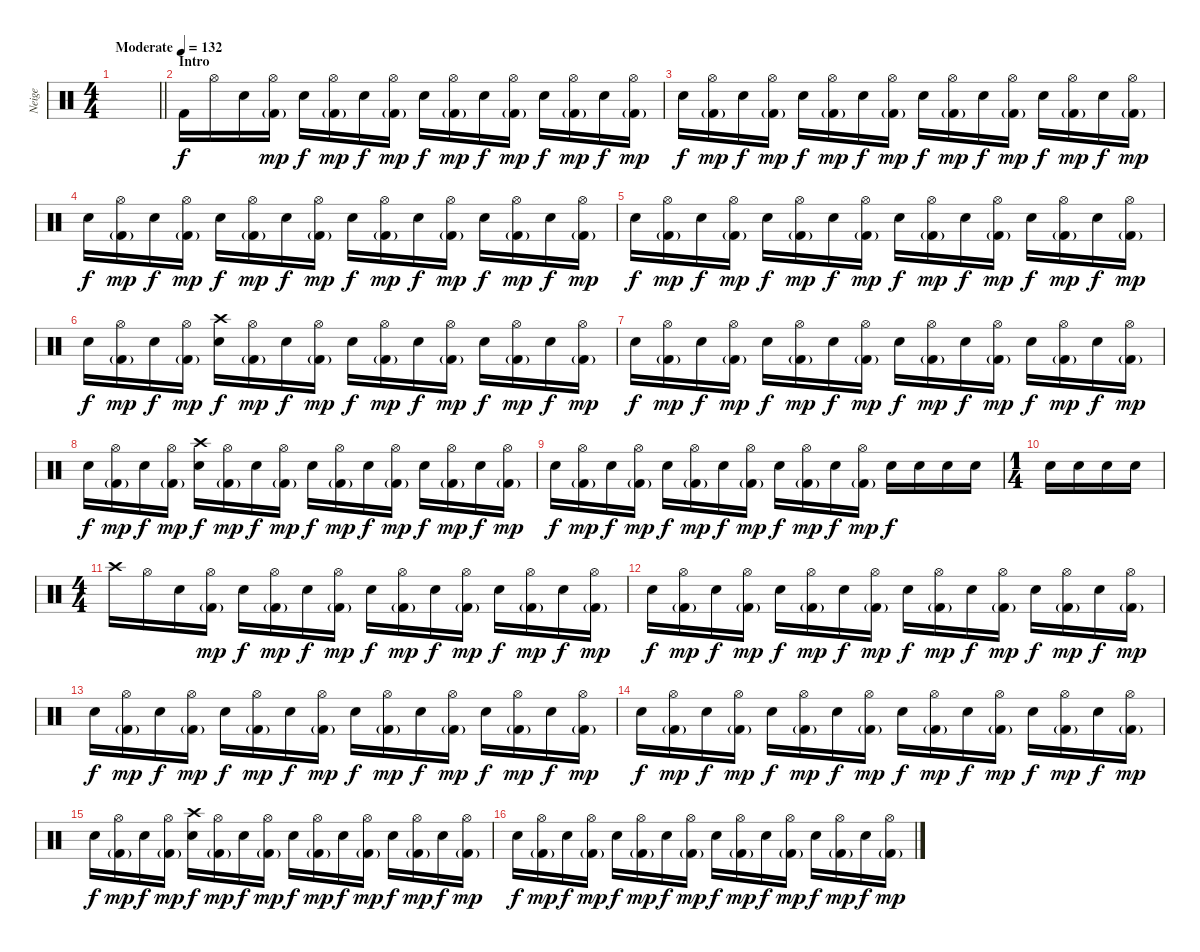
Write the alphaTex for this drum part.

\track ("Neige" "Neige") {instrument percussion}
\staff {score}
\articulation defaults
\ts (4 4)
\tempo (132 "Moderate")
\clef neutral
\barLineRight lightlight
\ks c
|
\section ("" "Intro")
"Kick (hit) 2".16 "Hi-Hat (open)".16 "Snare (hit) 2".16 ("Kick (hit) 2"{g} "Hi-Hat (open)").16{dy mp} "Snare (hit) 2".16{dy f} ("Kick (hit) 2"{g} "Hi-Hat (open)").16{dy mp} "Snare (hit) 2".16{dy f} ("Kick (hit) 2"{g} "Hi-Hat (open)").16{dy mp} "Snare (hit) 2".16{dy f} ("Kick (hit) 2"{g} "Hi-Hat (open)").16{dy mp} "Snare (hit) 2".16{dy f} ("Kick (hit) 2"{g} "Hi-Hat (open)").16{dy mp} "Snare (hit) 2".16{dy f} ("Kick (hit) 2"{g} "Hi-Hat (open)").16{dy mp} "Snare (hit) 2".16{dy f} ("Kick (hit) 2"{g} "Hi-Hat (open)").16{dy mp} |
"Snare (hit) 2".16{dy f} ("Kick (hit) 2"{g} "Hi-Hat (open)").16{dy mp} "Snare (hit) 2".16{dy f} ("Kick (hit) 2"{g} "Hi-Hat (open)").16{dy mp} "Snare (hit) 2".16{dy f} ("Kick (hit) 2"{g} "Hi-Hat (open)").16{dy mp} "Snare (hit) 2".16{dy f} ("Kick (hit) 2"{g} "Hi-Hat (open)").16{dy mp} "Snare (hit) 2".16{dy f} ("Kick (hit) 2"{g} "Hi-Hat (open)").16{dy mp} "Snare (hit) 2".16{dy f} ("Kick (hit) 2"{g} "Hi-Hat (open)").16{dy mp} "Snare (hit) 2".16{dy f} ("Kick (hit) 2"{g} "Hi-Hat (open)").16{dy mp} "Snare (hit) 2".16{dy f} ("Kick (hit) 2"{g} "Hi-Hat (open)").16{dy mp} |
"Snare (hit) 2".16{dy f} ("Kick (hit) 2"{g} "Hi-Hat (open)").16{dy mp} "Snare (hit) 2".16{dy f} ("Kick (hit) 2"{g} "Hi-Hat (open)").16{dy mp} "Snare (hit) 2".16{dy f} ("Kick (hit) 2"{g} "Hi-Hat (open)").16{dy mp} "Snare (hit) 2".16{dy f} ("Kick (hit) 2"{g} "Hi-Hat (open)").16{dy mp} "Snare (hit) 2".16{dy f} ("Kick (hit) 2"{g} "Hi-Hat (open)").16{dy mp} "Snare (hit) 2".16{dy f} ("Kick (hit) 2"{g} "Hi-Hat (open)").16{dy mp} "Snare (hit) 2".16{dy f} ("Kick (hit) 2"{g} "Hi-Hat (open)").16{dy mp} "Snare (hit) 2".16{dy f} ("Kick (hit) 2"{g} "Hi-Hat (open)").16{dy mp} |
"Snare (hit) 2".16{dy f} ("Kick (hit) 2"{g} "Hi-Hat (open)").16{dy mp} "Snare (hit) 2".16{dy f} ("Kick (hit) 2"{g} "Hi-Hat (open)").16{dy mp} "Snare (hit) 2".16{dy f} ("Kick (hit) 2"{g} "Hi-Hat (open)").16{dy mp} "Snare (hit) 2".16{dy f} ("Kick (hit) 2"{g} "Hi-Hat (open)").16{dy mp} "Snare (hit) 2".16{dy f} ("Kick (hit) 2"{g} "Hi-Hat (open)").16{dy mp} "Snare (hit) 2".16{dy f} ("Kick (hit) 2"{g} "Hi-Hat (open)").16{dy mp} "Snare (hit) 2".16{dy f} ("Kick (hit) 2"{g} "Hi-Hat (open)").16{dy mp} "Snare (hit) 2".16{dy f} ("Kick (hit) 2"{g} "Hi-Hat (open)").16{dy mp} |
"Snare (hit) 2".16{dy f} ("Kick (hit) 2"{g} "Hi-Hat (open)").16{dy mp} "Snare (hit) 2".16{dy f} ("Kick (hit) 2"{g} "Hi-Hat (open)").16{dy mp} ("Snare (hit) 2" "Crash high (hit)").16{dy f} ("Kick (hit) 2"{g} "Hi-Hat (open)").16{dy mp} "Snare (hit) 2".16{dy f} ("Kick (hit) 2"{g} "Hi-Hat (open)").16{dy mp} "Snare (hit) 2".16{dy f} ("Kick (hit) 2"{g} "Hi-Hat (open)").16{dy mp} "Snare (hit) 2".16{dy f} ("Kick (hit) 2"{g} "Hi-Hat (open)").16{dy mp} "Snare (hit) 2".16{dy f} ("Kick (hit) 2"{g} "Hi-Hat (open)").16{dy mp} "Snare (hit) 2".16{dy f} ("Kick (hit) 2"{g} "Hi-Hat (open)").16{dy mp} |
"Snare (hit) 2".16{dy f} ("Kick (hit) 2"{g} "Hi-Hat (open)").16{dy mp} "Snare (hit) 2".16{dy f} ("Kick (hit) 2"{g} "Hi-Hat (open)").16{dy mp} "Snare (hit) 2".16{dy f} ("Kick (hit) 2"{g} "Hi-Hat (open)").16{dy mp} "Snare (hit) 2".16{dy f} ("Kick (hit) 2"{g} "Hi-Hat (open)").16{dy mp} "Snare (hit) 2".16{dy f} ("Kick (hit) 2"{g} "Hi-Hat (open)").16{dy mp} "Snare (hit) 2".16{dy f} ("Kick (hit) 2"{g} "Hi-Hat (open)").16{dy mp} "Snare (hit) 2".16{dy f} ("Kick (hit) 2"{g} "Hi-Hat (open)").16{dy mp} "Snare (hit) 2".16{dy f} ("Kick (hit) 2"{g} "Hi-Hat (open)").16{dy mp} |
"Snare (hit) 2".16{dy f} ("Kick (hit) 2"{g} "Hi-Hat (open)").16{dy mp} "Snare (hit) 2".16{dy f} ("Kick (hit) 2"{g} "Hi-Hat (open)").16{dy mp} ("Snare (hit) 2" "Crash high (hit)").16{dy f} ("Kick (hit) 2"{g} "Hi-Hat (open)").16{dy mp} "Snare (hit) 2".16{dy f} ("Kick (hit) 2"{g} "Hi-Hat (open)").16{dy mp} "Snare (hit) 2".16{dy f} ("Kick (hit) 2"{g} "Hi-Hat (open)").16{dy mp} "Snare (hit) 2".16{dy f} ("Kick (hit) 2"{g} "Hi-Hat (open)").16{dy mp} "Snare (hit) 2".16{dy f} ("Kick (hit) 2"{g} "Hi-Hat (open)").16{dy mp} "Snare (hit) 2".16{dy f} ("Kick (hit) 2"{g} "Hi-Hat (open)").16{dy mp} |
"Snare (hit) 2".16{dy f} ("Kick (hit) 2"{g} "Hi-Hat (open)").16{dy mp} "Snare (hit) 2".16{dy f} ("Kick (hit) 2"{g} "Hi-Hat (open)").16{dy mp} "Snare (hit) 2".16{dy f} ("Kick (hit) 2"{g} "Hi-Hat (open)").16{dy mp} "Snare (hit) 2".16{dy f} ("Kick (hit) 2"{g} "Hi-Hat (open)").16{dy mp} "Snare (hit) 2".16{dy f} ("Kick (hit) 2"{g} "Hi-Hat (open)").16{dy mp} "Snare (hit) 2".16{dy f} ("Kick (hit) 2"{g} "Hi-Hat (open)").16{dy mp} "Snare (hit) 2".16{dy f} "Snare (hit) 2".16 "Snare (hit) 2".16 "Snare (hit) 2".16 |
\ts (1 4)
"Snare (hit) 2".16 "Snare (hit) 2".16 "Snare (hit) 2".16 "Snare (hit) 2".16 |
\ts (4 4)
"Crash high (hit)".16 "Hi-Hat (open)".16 "Snare (hit) 2".16 ("Kick (hit) 2"{g} "Hi-Hat (open)").16{dy mp} "Snare (hit) 2".16{dy f} ("Kick (hit) 2"{g} "Hi-Hat (open)").16{dy mp} "Snare (hit) 2".16{dy f} ("Kick (hit) 2"{g} "Hi-Hat (open)").16{dy mp} "Snare (hit) 2".16{dy f} ("Kick (hit) 2"{g} "Hi-Hat (open)").16{dy mp} "Snare (hit) 2".16{dy f} ("Kick (hit) 2"{g} "Hi-Hat (open)").16{dy mp} "Snare (hit) 2".16{dy f} ("Kick (hit) 2"{g} "Hi-Hat (open)").16{dy mp} "Snare (hit) 2".16{dy f} ("Kick (hit) 2"{g} "Hi-Hat (open)").16{dy mp} |
"Snare (hit) 2".16{dy f} ("Kick (hit) 2"{g} "Hi-Hat (open)").16{dy mp} "Snare (hit) 2".16{dy f} ("Kick (hit) 2"{g} "Hi-Hat (open)").16{dy mp} "Snare (hit) 2".16{dy f} ("Kick (hit) 2"{g} "Hi-Hat (open)").16{dy mp} "Snare (hit) 2".16{dy f} ("Kick (hit) 2"{g} "Hi-Hat (open)").16{dy mp} "Snare (hit) 2".16{dy f} ("Kick (hit) 2"{g} "Hi-Hat (open)").16{dy mp} "Snare (hit) 2".16{dy f} ("Kick (hit) 2"{g} "Hi-Hat (open)").16{dy mp} "Snare (hit) 2".16{dy f} ("Kick (hit) 2"{g} "Hi-Hat (open)").16{dy mp} "Snare (hit) 2".16{dy f} ("Kick (hit) 2"{g} "Hi-Hat (open)").16{dy mp} |
"Snare (hit) 2".16{dy f} ("Kick (hit) 2"{g} "Hi-Hat (open)").16{dy mp} "Snare (hit) 2".16{dy f} ("Kick (hit) 2"{g} "Hi-Hat (open)").16{dy mp} "Snare (hit) 2".16{dy f} ("Kick (hit) 2"{g} "Hi-Hat (open)").16{dy mp} "Snare (hit) 2".16{dy f} ("Kick (hit) 2"{g} "Hi-Hat (open)").16{dy mp} "Snare (hit) 2".16{dy f} ("Kick (hit) 2"{g} "Hi-Hat (open)").16{dy mp} "Snare (hit) 2".16{dy f} ("Kick (hit) 2"{g} "Hi-Hat (open)").16{dy mp} "Snare (hit) 2".16{dy f} ("Kick (hit) 2"{g} "Hi-Hat (open)").16{dy mp} "Snare (hit) 2".16{dy f} ("Kick (hit) 2"{g} "Hi-Hat (open)").16{dy mp} |
"Snare (hit) 2".16{dy f} ("Kick (hit) 2"{g} "Hi-Hat (open)").16{dy mp} "Snare (hit) 2".16{dy f} ("Kick (hit) 2"{g} "Hi-Hat (open)").16{dy mp} "Snare (hit) 2".16{dy f} ("Kick (hit) 2"{g} "Hi-Hat (open)").16{dy mp} "Snare (hit) 2".16{dy f} ("Kick (hit) 2"{g} "Hi-Hat (open)").16{dy mp} "Snare (hit) 2".16{dy f} ("Kick (hit) 2"{g} "Hi-Hat (open)").16{dy mp} "Snare (hit) 2".16{dy f} ("Kick (hit) 2"{g} "Hi-Hat (open)").16{dy mp} "Snare (hit) 2".16{dy f} ("Kick (hit) 2"{g} "Hi-Hat (open)").16{dy mp} "Snare (hit) 2".16{dy f} ("Kick (hit) 2"{g} "Hi-Hat (open)").16{dy mp} |
"Snare (hit) 2".16{dy f} ("Kick (hit) 2"{g} "Hi-Hat (open)").16{dy mp} "Snare (hit) 2".16{dy f} ("Kick (hit) 2"{g} "Hi-Hat (open)").16{dy mp} ("Snare (hit) 2" "Crash high (hit)").16{dy f} ("Kick (hit) 2"{g} "Hi-Hat (open)").16{dy mp} "Snare (hit) 2".16{dy f} ("Kick (hit) 2"{g} "Hi-Hat (open)").16{dy mp} "Snare (hit) 2".16{dy f} ("Kick (hit) 2"{g} "Hi-Hat (open)").16{dy mp} "Snare (hit) 2".16{dy f} ("Kick (hit) 2"{g} "Hi-Hat (open)").16{dy mp} "Snare (hit) 2".16{dy f} ("Kick (hit) 2"{g} "Hi-Hat (open)").16{dy mp} "Snare (hit) 2".16{dy f} ("Kick (hit) 2"{g} "Hi-Hat (open)").16{dy mp} |
"Snare (hit) 2".16{dy f} ("Kick (hit) 2"{g} "Hi-Hat (open)").16{dy mp} "Snare (hit) 2".16{dy f} ("Kick (hit) 2"{g} "Hi-Hat (open)").16{dy mp} "Snare (hit) 2".16{dy f} ("Kick (hit) 2"{g} "Hi-Hat (open)").16{dy mp} "Snare (hit) 2".16{dy f} ("Kick (hit) 2"{g} "Hi-Hat (open)").16{dy mp} "Snare (hit) 2".16{dy f} ("Kick (hit) 2"{g} "Hi-Hat (open)").16{dy mp} "Snare (hit) 2".16{dy f} ("Kick (hit) 2"{g} "Hi-Hat (open)").16{dy mp} "Snare (hit) 2".16{dy f} ("Kick (hit) 2"{g} "Hi-Hat (open)").16{dy mp} "Snare (hit) 2".16{dy f} ("Kick (hit) 2"{g} "Hi-Hat (open)").16{dy mp}
